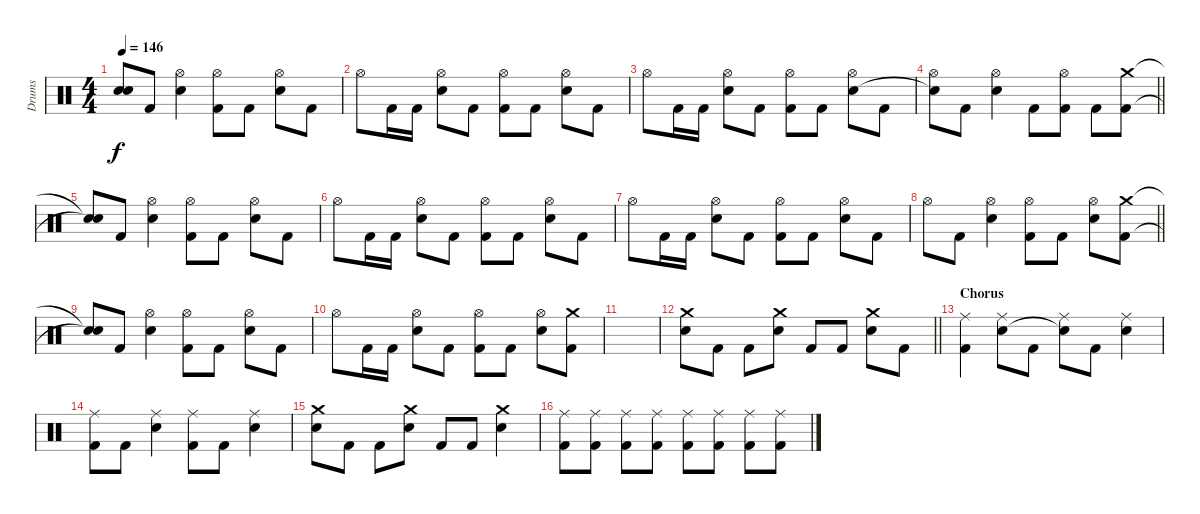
\track ("Drums" "Drums") {instrument percussion}
\staff {score}
\articulation defaults
\ts (4 4)
\tempo 146
\clef neutral
\ks c
("Snare (hit)"{t} "Snare (hit)"{t}).8{dy f} "Kick (hit) 2".8 ("Hi-Hat (open)" "Electric Snare (hit)").4 ("Hi-Hat (open)" "Kick (hit) 2").8 "Kick (hit) 2".8 ("Hi-Hat (open)" "Electric Snare (hit)").8 "Kick (hit) 2".8 |
"Hi-Hat (open)".8 "Kick (hit) 2".16 "Kick (hit) 2".16 ("Hi-Hat (open)" "Electric Snare (hit)").8 "Kick (hit) 2".8 ("Hi-Hat (open)" "Kick (hit) 2").8 "Kick (hit) 2".8 ("Hi-Hat (open)" "Electric Snare (hit)").8 "Kick (hit) 2".8 |
"Hi-Hat (open)".8 "Kick (hit) 2".16 "Kick (hit) 2".16 ("Hi-Hat (open)" "Electric Snare (hit)").8 "Kick (hit) 2".8 ("Hi-Hat (open)" "Kick (hit) 2").8 "Kick (hit) 2".8 ("Hi-Hat (open)" "Electric Snare (hit)").8 "Kick (hit) 2".8 |
\barLineRight lightlight
("Hi-Hat (open)" "Snare (hit)"{t}).8 "Kick (hit) 2".8 ("Hi-Hat (open)" "Electric Snare (hit)").4 "Kick (hit) 2".8 ("Hi-Hat (open)" "Kick (hit) 2").8 "Kick (hit) 2".8 ("Crash medium (hit)" "Kick (hit) 2").8 |
("Snare (hit)"{t} "Snare (hit)"{t}).8 "Kick (hit) 2".8 ("Hi-Hat (open)" "Electric Snare (hit)").4 ("Hi-Hat (open)" "Kick (hit) 2").8 "Kick (hit) 2".8 ("Hi-Hat (open)" "Electric Snare (hit)").8 "Kick (hit) 2".8 |
"Hi-Hat (open)".8 "Kick (hit) 2".16 "Kick (hit) 2".16 ("Hi-Hat (open)" "Electric Snare (hit)").8 "Kick (hit) 2".8 ("Hi-Hat (open)" "Kick (hit) 2").8 "Kick (hit) 2".8 ("Hi-Hat (open)" "Electric Snare (hit)").8 "Kick (hit) 2".8 |
"Hi-Hat (open)".8 "Kick (hit) 2".16 "Kick (hit) 2".16 ("Hi-Hat (open)" "Electric Snare (hit)").8 "Kick (hit) 2".8 ("Hi-Hat (open)" "Kick (hit) 2").8 "Kick (hit) 2".8 ("Hi-Hat (open)" "Electric Snare (hit)").8 "Kick (hit) 2".8 |
\barLineRight lightlight "Hi-Hat (open)".8 "Kick (hit) 2".8
("Hi-Hat (open)" "Electric Snare (hit)").4 ("Hi-Hat (open)" "Kick (hit) 2").8 "Kick (hit) 2".8 ("Hi-Hat (open)" "Electric Snare (hit)").8 ("Crash medium (hit)" "Kick (hit) 2").8 |
("Snare (hit)"{t} "Snare (hit)"{t}).8 "Kick (hit) 2".8 ("Hi-Hat (open)" "Electric Snare (hit)").4 ("Hi-Hat (open)" "Kick (hit) 2").8 "Kick (hit) 2".8 ("Hi-Hat (open)" "Electric Snare (hit)").8 "Kick (hit) 2".8 |
"Hi-Hat (open)".8 "Kick (hit) 2".16 "Kick (hit) 2".16 ("Hi-Hat (open)" "Electric Snare (hit)").8 "Kick (hit) 2".8 ("Hi-Hat (open)" "Kick (hit) 2").8 "Kick (hit) 2".8 ("Hi-Hat (open)" "Electric Snare (hit)").8 ("Crash medium (hit)" "Kick (hit) 2").8 |
|
\barLineRight lightlight
("Crash medium (hit)" "Electric Snare (hit)").8 "Kick (hit) 2".8 "Kick (hit) 2".8 ("Crash medium (hit)" "Electric Snare (hit)").8 "Kick (hit) 2".8 "Kick (hit) 2".8 ("Crash medium (hit)" "Electric Snare (hit)").8 "Kick (hit) 2".8 |
\section ("" "Chorus")
("Ride (middle)" "Kick (hit) 2").4 ("Ride (middle)" "Electric Snare (hit)").8 "Kick (hit) 2".8 ("Ride (middle)" "Snare (hit)"{t}).8 "Kick (hit) 2".8 ("Ride (middle)" "Electric Snare (hit)").4 |
("Ride (middle)" "Kick (hit) 2").8 "Kick (hit) 2".8 ("Ride (middle)" "Electric Snare (hit)").4 ("Ride (middle)" "Kick (hit) 2").8 "Kick (hit) 2".8 ("Ride (middle)" "Electric Snare (hit)").4 |
("Crash medium (hit)" "Electric Snare (hit)").8 "Kick (hit) 2".8 "Kick (hit) 2".8 ("Crash medium (hit)" "Electric Snare (hit)").8 "Kick (hit) 2".8 "Kick (hit) 2".8 ("Crash medium (hit)" "Electric Snare (hit)").4 |
("Ride (middle)" "Kick (hit) 2").8 ("Ride (middle)" "Kick (hit) 2").8 ("Ride (middle)" "Kick (hit) 2").8 ("Ride (middle)" "Kick (hit) 2").8 ("Ride (middle)" "Kick (hit) 2").8 ("Ride (middle)" "Kick (hit) 2").8 ("Ride (middle)" "Kick (hit) 2").8 ("Ride (middle)" "Kick (hit) 2").8
